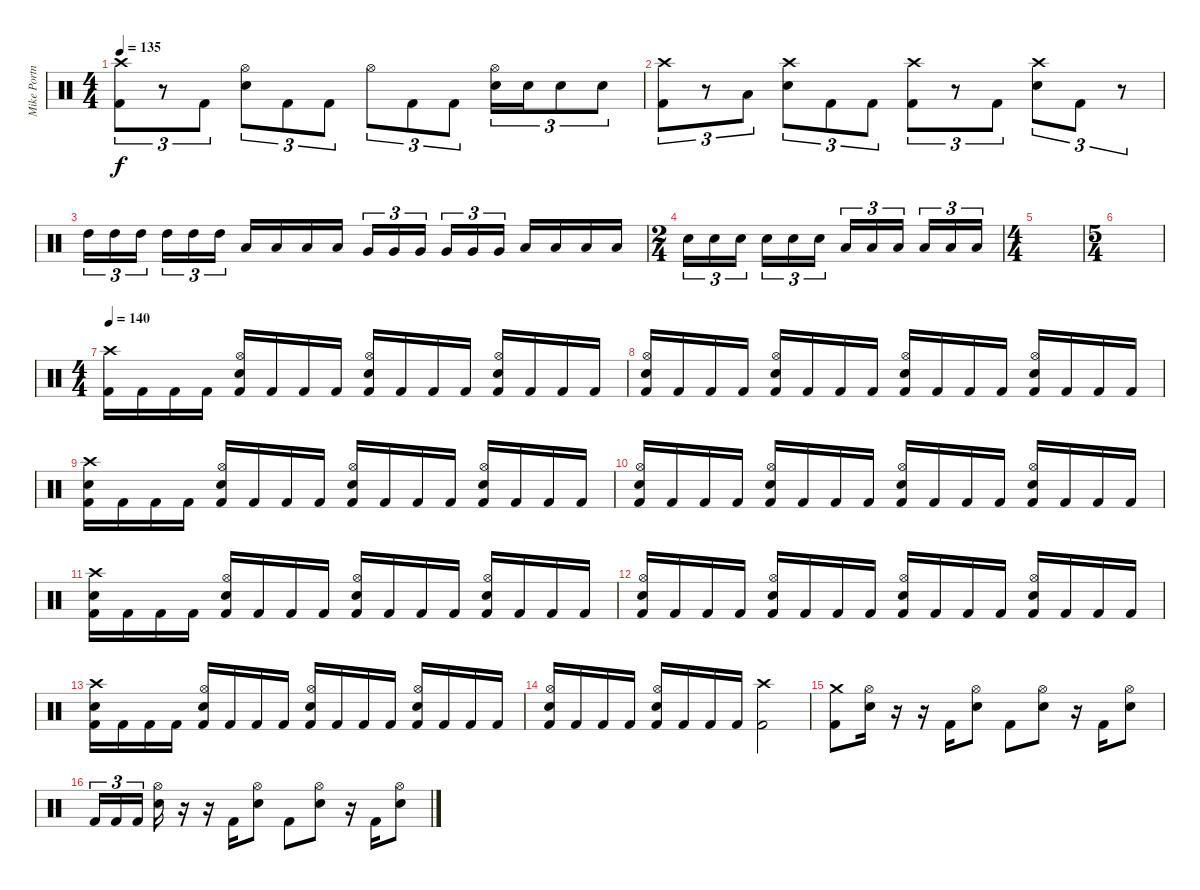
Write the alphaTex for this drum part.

\track ("Mike Portnoy" "Mike Portn") {instrument percussion}
\staff {score}
\articulation defaults
\ts (4 4)
\tempo 135
\clef neutral
\ks c
("Crash high (hit)" "Kick (hit) 2").8{tu (3 2) dy f} r.8{tu (3 2)} "Kick (hit) 2".8{tu (3 2)} ("Hi-Hat (open)" "Snare (hit) 2").8{tu (3 2)} "Kick (hit) 2".8{tu (3 2)} "Kick (hit) 2".8{tu (3 2)} "Hi-Hat (open)".8{tu (3 2)} "Kick (hit) 2".8{tu (3 2)} "Kick (hit) 2".8{tu (3 2)} ("Hi-Hat (open)" "Snare (hit) 2").16{tu (3 2)} "Snare (hit) 2".16{tu (3 2)} "Snare (hit) 2".8{tu (3 2)} "Snare (hit) 2".8{tu (3 2)} |
("Crash high (hit)" "Kick (hit) 2").8{tu (3 2)} r.8{tu (3 2)} "Low Tom (hit)".8{tu (3 2)} ("Crash high (hit)" "Snare (hit) 2").8{tu (3 2)} "Kick (hit) 2".8{tu (3 2)} "Kick (hit) 2".8{tu (3 2)} ("Crash high (hit)" "Kick (hit) 2").8{tu (3 2)} r.8{tu (3 2)} "Kick (hit) 2".8{tu (3 2)} ("Crash high (hit)" "Snare (hit) 2").8{tu (3 2)} "Kick (hit) 2".8{tu (3 2)} r.8{tu (3 2)} |
"High Tom (hit)".16{tu (3 2)} "High Tom (hit)".16{tu (3 2)} "High Tom (hit)".16{tu (3 2)} "High Tom (hit)".16{tu (3 2)} "High Tom (hit)".16{tu (3 2)} "High Tom (hit)".16{tu (3 2)} "Low Tom (hit)".16 "Low Tom (hit)".16 "Low Tom (hit)".16 "Low Tom (hit)".16 "Very Low Tom (hit)".16{tu (3 2)} "Very Low Tom (hit)".16{tu (3 2)} "Very Low Tom (hit)".16{tu (3 2)} "Very Low Tom (hit)".16{tu (3 2)} "Very Low Tom (hit)".16{tu (3 2)} "Very Low Tom (hit)".16{tu (3 2)} "Low Floor Tom (hit)".16 "Low Floor Tom (hit)".16 "Low Floor Tom (hit)".16 "Low Floor Tom (hit)".16 |
\ts (2 4)
"Snare (hit) 2".16{tu (3 2)} "Snare (hit) 2".16{tu (3 2)} "Snare (hit) 2".16{tu (3 2)} "Snare (hit) 2".16{tu (3 2)} "Snare (hit) 2".16{tu (3 2)} "Snare (hit) 2".16{tu (3 2)} "Low Tom (hit)".16{tu (3 2)} "Low Tom (hit)".16{tu (3 2)} "Low Tom (hit)".16{tu (3 2)} "Low Tom (hit)".16{tu (3 2)} "Low Tom (hit)".16{tu (3 2)} "Low Tom (hit)".16{tu (3 2)} |
\ts (4 4)
|
\ts (5 4)
|
\ts (4 4)
\tempo 140
("Crash high (hit)" "Kick (hit) 2").16 "Kick (hit) 2".16 "Kick (hit) 2".16 "Kick (hit) 2".16 ("Hi-Hat (open)" "Snare (hit) 2" "Kick (hit) 2").16 "Kick (hit) 2".16 "Kick (hit) 2".16 "Kick (hit) 2".16 ("Hi-Hat (open)" "Snare (hit) 2" "Kick (hit) 2").16 "Kick (hit) 2".16 "Kick (hit) 2".16 "Kick (hit) 2".16 ("Hi-Hat (open)" "Snare (hit) 2" "Kick (hit) 2").16 "Kick (hit) 2".16 "Kick (hit) 2".16 "Kick (hit) 2".16 |
("Hi-Hat (open)" "Snare (hit) 2" "Kick (hit) 2").16 "Kick (hit) 2".16 "Kick (hit) 2".16 "Kick (hit) 2".16 ("Hi-Hat (open)" "Snare (hit) 2" "Kick (hit) 2").16 "Kick (hit) 2".16 "Kick (hit) 2".16 "Kick (hit) 2".16 ("Hi-Hat (open)" "Snare (hit) 2" "Kick (hit) 2").16 "Kick (hit) 2".16 "Kick (hit) 2".16 "Kick (hit) 2".16 ("Hi-Hat (open)" "Snare (hit) 2" "Kick (hit) 2").16 "Kick (hit) 2".16 "Kick (hit) 2".16 "Kick (hit) 2".16 |
("Crash high (hit)" "Snare (hit) 2" "Kick (hit) 2").16 "Kick (hit) 2".16 "Kick (hit) 2".16 "Kick (hit) 2".16 ("Hi-Hat (open)" "Snare (hit) 2" "Kick (hit) 2").16 "Kick (hit) 2".16 "Kick (hit) 2".16 "Kick (hit) 2".16 ("Hi-Hat (open)" "Snare (hit) 2" "Kick (hit) 2").16 "Kick (hit) 2".16 "Kick (hit) 2".16 "Kick (hit) 2".16 ("Hi-Hat (open)" "Snare (hit) 2" "Kick (hit) 2").16 "Kick (hit) 2".16 "Kick (hit) 2".16 "Kick (hit) 2".16 |
("Hi-Hat (open)" "Snare (hit) 2" "Kick (hit) 2").16 "Kick (hit) 2".16 "Kick (hit) 2".16 "Kick (hit) 2".16 ("Hi-Hat (open)" "Snare (hit) 2" "Kick (hit) 2").16 "Kick (hit) 2".16 "Kick (hit) 2".16 "Kick (hit) 2".16 ("Hi-Hat (open)" "Snare (hit) 2" "Kick (hit) 2").16 "Kick (hit) 2".16 "Kick (hit) 2".16 "Kick (hit) 2".16 ("Hi-Hat (open)" "Snare (hit) 2" "Kick (hit) 2").16 "Kick (hit) 2".16 "Kick (hit) 2".16 "Kick (hit) 2".16 |
("Crash high (hit)" "Snare (hit) 2" "Kick (hit) 2").16 "Kick (hit) 2".16 "Kick (hit) 2".16 "Kick (hit) 2".16 ("Hi-Hat (open)" "Snare (hit) 2" "Kick (hit) 2").16 "Kick (hit) 2".16 "Kick (hit) 2".16 "Kick (hit) 2".16 ("Hi-Hat (open)" "Snare (hit) 2" "Kick (hit) 2").16 "Kick (hit) 2".16 "Kick (hit) 2".16 "Kick (hit) 2".16 ("Hi-Hat (open)" "Snare (hit) 2" "Kick (hit) 2").16 "Kick (hit) 2".16 "Kick (hit) 2".16 "Kick (hit) 2".16 |
("Hi-Hat (open)" "Snare (hit) 2" "Kick (hit) 2").16 "Kick (hit) 2".16 "Kick (hit) 2".16 "Kick (hit) 2".16 ("Hi-Hat (open)" "Snare (hit) 2" "Kick (hit) 2").16 "Kick (hit) 2".16 "Kick (hit) 2".16 "Kick (hit) 2".16 ("Hi-Hat (open)" "Snare (hit) 2" "Kick (hit) 2").16 "Kick (hit) 2".16 "Kick (hit) 2".16 "Kick (hit) 2".16 ("Hi-Hat (open)" "Snare (hit) 2" "Kick (hit) 2").16 "Kick (hit) 2".16 "Kick (hit) 2".16 "Kick (hit) 2".16 |
("Crash high (hit)" "Snare (hit) 2" "Kick (hit) 2").16 "Kick (hit) 2".16 "Kick (hit) 2".16 "Kick (hit) 2".16 ("Hi-Hat (open)" "Snare (hit) 2" "Kick (hit) 2").16 "Kick (hit) 2".16 "Kick (hit) 2".16 "Kick (hit) 2".16 ("Hi-Hat (open)" "Snare (hit) 2" "Kick (hit) 2").16 "Kick (hit) 2".16 "Kick (hit) 2".16 "Kick (hit) 2".16 ("Hi-Hat (open)" "Snare (hit) 2" "Kick (hit) 2").16 "Kick (hit) 2".16 "Kick (hit) 2".16 "Kick (hit) 2".16 |
("Hi-Hat (open)" "Snare (hit) 2" "Kick (hit) 2").16 "Kick (hit) 2".16 "Kick (hit) 2".16 "Kick (hit) 2".16 ("Hi-Hat (open)" "Snare (hit) 2" "Kick (hit) 2").16 "Kick (hit) 2".16 "Kick (hit) 2".16 "Kick (hit) 2".16 ("Crash high (hit)" "Kick (hit) 2").2 |
("Crash medium (hit)" "Kick (hit) 2").8 ("Hi-Hat (open)" "Snare (hit) 2").16 r.16 r.16 "Kick (hit) 2".16 ("Hi-Hat (open)" "Snare (hit) 2").8 "Kick (hit) 2".8 ("Hi-Hat (open)" "Snare (hit) 2").8 r.16 "Kick (hit) 2".16 ("Hi-Hat (open)" "Snare (hit) 2").8 |
"Kick (hit) 2".16{tu (3 2)} "Kick (hit) 2".16{tu (3 2)} "Kick (hit) 2".16{tu (3 2)} ("Hi-Hat (open)" "Snare (hit) 2").16 r.16 r.16 "Kick (hit) 2".16 ("Hi-Hat (open)" "Snare (hit) 2").8 "Kick (hit) 2".8 ("Hi-Hat (open)" "Snare (hit) 2").8 r.16 "Kick (hit) 2".16 ("Hi-Hat (open)" "Snare (hit) 2").8
